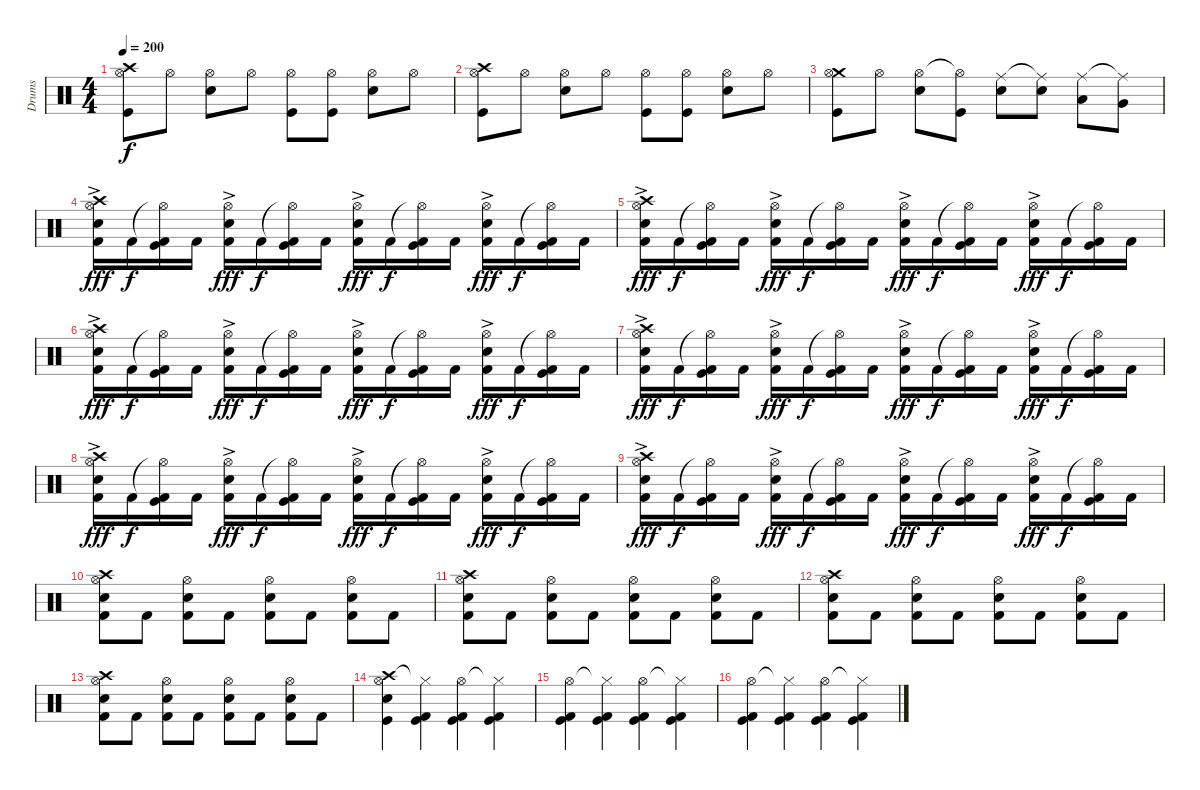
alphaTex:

\track ("Drums" "Drums") {instrument percussion}
\staff {score}
\articulation defaults
\ts (4 4)
\tempo 200
\clef neutral
\ks c
("Crash high (hit)" "Hi-Hat (open)" "Kick (hit)").8{dy f} "Hi-Hat (open)".8 ("Hi-Hat (open)" "Snare (hit) 2").8 "Hi-Hat (open)".8 ("Hi-Hat (open)" "Kick (hit)").8 ("Hi-Hat (open)" "Kick (hit)").8 ("Hi-Hat (open)" "Snare (hit) 2").8 "Hi-Hat (open)".8 |
("Crash high (hit)" "Hi-Hat (open)" "Kick (hit)").8 "Hi-Hat (open)".8 ("Hi-Hat (open)" "Snare (hit) 2").8 "Hi-Hat (open)".8 ("Hi-Hat (open)" "Kick (hit)").8 ("Hi-Hat (open)" "Kick (hit)").8 ("Hi-Hat (open)" "Snare (hit) 2").8 "Hi-Hat (open)".8 |
("Crash medium (hit)" "Hi-Hat (open)" "Kick (hit)").8 "Hi-Hat (open)".8 ("Hi-Hat (open)" "Snare (hit) 2").8 ("Hi-Hat (open)"{t} "Kick (hit)").8 ("Ride (middle)" "Snare (hit) 2").8 ("Ride (middle)"{t} "Snare (hit) 2").8 ("Ride (middle)" "Low Tom (hit)").8 ("Ride (middle)"{t} "Very Low Tom (hit)").8 |
("Crash high (hit)"{ac} "Hi-Hat (open)"{ac} "Snare (hit) 2" "Kick (hit) 2").16{dy fff} "Kick (hit) 2".16{dy f} ("Hi-Hat (open)"{t} "Kick (hit)" "Kick (hit) 2").16 "Kick (hit) 2".16 ("Hi-Hat (open)"{ac} "Snare (hit) 2" "Kick (hit) 2").16{dy fff} "Kick (hit) 2".16{dy f} ("Hi-Hat (open)"{t} "Kick (hit)" "Kick (hit) 2").16 "Kick (hit) 2".16 ("Hi-Hat (open)"{ac} "Snare (hit) 2" "Kick (hit) 2").16{dy fff} "Kick (hit) 2".16{dy f} ("Hi-Hat (open)"{t} "Kick (hit)" "Kick (hit) 2").16 "Kick (hit) 2".16 ("Hi-Hat (open)"{ac} "Snare (hit) 2" "Kick (hit) 2").16{dy fff} "Kick (hit) 2".16{dy f} ("Hi-Hat (open)"{t} "Kick (hit)" "Kick (hit) 2").16 "Kick (hit) 2".16 |
("Crash high (hit)"{ac} "Hi-Hat (open)"{ac} "Snare (hit) 2" "Kick (hit) 2").16{dy fff} "Kick (hit) 2".16{dy f} ("Hi-Hat (open)"{t} "Kick (hit)" "Kick (hit) 2").16 "Kick (hit) 2".16 ("Hi-Hat (open)"{ac} "Snare (hit) 2" "Kick (hit) 2").16{dy fff} "Kick (hit) 2".16{dy f} ("Hi-Hat (open)"{t} "Kick (hit)" "Kick (hit) 2").16 "Kick (hit) 2".16 ("Hi-Hat (open)"{ac} "Snare (hit) 2" "Kick (hit) 2").16{dy fff} "Kick (hit) 2".16{dy f} ("Hi-Hat (open)"{t} "Kick (hit)" "Kick (hit) 2").16 "Kick (hit) 2".16 ("Hi-Hat (open)"{ac} "Snare (hit) 2" "Kick (hit) 2").16{dy fff} "Kick (hit) 2".16{dy f} ("Hi-Hat (open)"{t} "Kick (hit)" "Kick (hit) 2").16 "Kick (hit) 2".16 |
("Crash high (hit)"{ac} "Hi-Hat (open)"{ac} "Snare (hit) 2" "Kick (hit) 2").16{dy fff} "Kick (hit) 2".16{dy f} ("Hi-Hat (open)"{t} "Kick (hit)" "Kick (hit) 2").16 "Kick (hit) 2".16 ("Hi-Hat (open)"{ac} "Snare (hit) 2" "Kick (hit) 2").16{dy fff} "Kick (hit) 2".16{dy f} ("Hi-Hat (open)"{t} "Kick (hit)" "Kick (hit) 2").16 "Kick (hit) 2".16 ("Hi-Hat (open)"{ac} "Snare (hit) 2" "Kick (hit) 2").16{dy fff} "Kick (hit) 2".16{dy f} ("Hi-Hat (open)"{t} "Kick (hit)" "Kick (hit) 2").16 "Kick (hit) 2".16 ("Hi-Hat (open)"{ac} "Snare (hit) 2" "Kick (hit) 2").16{dy fff} "Kick (hit) 2".16{dy f} ("Hi-Hat (open)"{t} "Kick (hit)" "Kick (hit) 2").16 "Kick (hit) 2".16 |
("Crash high (hit)"{ac} "Hi-Hat (open)"{ac} "Snare (hit) 2" "Kick (hit) 2").16{dy fff} "Kick (hit) 2".16{dy f} ("Hi-Hat (open)"{t} "Kick (hit)" "Kick (hit) 2").16 "Kick (hit) 2".16 ("Hi-Hat (open)"{ac} "Snare (hit) 2" "Kick (hit) 2").16{dy fff} "Kick (hit) 2".16{dy f} ("Hi-Hat (open)"{t} "Kick (hit)" "Kick (hit) 2").16 "Kick (hit) 2".16 ("Hi-Hat (open)"{ac} "Snare (hit) 2" "Kick (hit) 2").16{dy fff} "Kick (hit) 2".16{dy f} ("Hi-Hat (open)"{t} "Kick (hit)" "Kick (hit) 2").16 "Kick (hit) 2".16 ("Hi-Hat (open)"{ac} "Snare (hit) 2" "Kick (hit) 2").16{dy fff} "Kick (hit) 2".16{dy f} ("Hi-Hat (open)"{t} "Kick (hit)" "Kick (hit) 2").16 "Kick (hit) 2".16 |
("Crash high (hit)"{ac} "Hi-Hat (open)"{ac} "Snare (hit) 2" "Kick (hit) 2").16{dy fff} "Kick (hit) 2".16{dy f} ("Hi-Hat (open)"{t} "Kick (hit)" "Kick (hit) 2").16 "Kick (hit) 2".16 ("Hi-Hat (open)"{ac} "Snare (hit) 2" "Kick (hit) 2").16{dy fff} "Kick (hit) 2".16{dy f} ("Hi-Hat (open)"{t} "Kick (hit)" "Kick (hit) 2").16 "Kick (hit) 2".16 ("Hi-Hat (open)"{ac} "Snare (hit) 2" "Kick (hit) 2").16{dy fff} "Kick (hit) 2".16{dy f} ("Hi-Hat (open)"{t} "Kick (hit)" "Kick (hit) 2").16 "Kick (hit) 2".16 ("Hi-Hat (open)"{ac} "Snare (hit) 2" "Kick (hit) 2").16{dy fff} "Kick (hit) 2".16{dy f} ("Hi-Hat (open)"{t} "Kick (hit)" "Kick (hit) 2").16 "Kick (hit) 2".16 |
("Crash high (hit)"{ac} "Hi-Hat (open)"{ac} "Snare (hit) 2" "Kick (hit) 2").16{dy fff} "Kick (hit) 2".16{dy f} ("Hi-Hat (open)"{t} "Kick (hit)" "Kick (hit) 2").16 "Kick (hit) 2".16 ("Hi-Hat (open)"{ac} "Snare (hit) 2" "Kick (hit) 2").16{dy fff} "Kick (hit) 2".16{dy f} ("Hi-Hat (open)"{t} "Kick (hit)" "Kick (hit) 2").16 "Kick (hit) 2".16 ("Hi-Hat (open)"{ac} "Snare (hit) 2" "Kick (hit) 2").16{dy fff} "Kick (hit) 2".16{dy f} ("Hi-Hat (open)"{t} "Kick (hit)" "Kick (hit) 2").16 "Kick (hit) 2".16 ("Hi-Hat (open)"{ac} "Snare (hit) 2" "Kick (hit) 2").16{dy fff} "Kick (hit) 2".16{dy f} ("Hi-Hat (open)"{t} "Kick (hit)" "Kick (hit) 2").16 "Kick (hit) 2".16 |
("Crash high (hit)" "Hi-Hat (open)" "Snare (hit) 2" "Kick (hit) 2").8 "Kick (hit) 2".8 ("Hi-Hat (open)" "Snare (hit) 2" "Kick (hit) 2").8 "Kick (hit) 2".8 ("Hi-Hat (open)" "Snare (hit) 2" "Kick (hit) 2").8 "Kick (hit) 2".8 ("Hi-Hat (open)" "Snare (hit) 2" "Kick (hit) 2").8 "Kick (hit) 2".8 |
("Crash high (hit)" "Hi-Hat (open)" "Snare (hit) 2" "Kick (hit) 2").8 "Kick (hit) 2".8 ("Hi-Hat (open)" "Snare (hit) 2" "Kick (hit) 2").8 "Kick (hit) 2".8 ("Hi-Hat (open)" "Snare (hit) 2" "Kick (hit) 2").8 "Kick (hit) 2".8 ("Hi-Hat (open)" "Snare (hit) 2" "Kick (hit) 2").8 "Kick (hit) 2".8 |
("Crash high (hit)" "Hi-Hat (open)" "Snare (hit) 2" "Kick (hit) 2").8 "Kick (hit) 2".8 ("Hi-Hat (open)" "Snare (hit) 2" "Kick (hit) 2").8 "Kick (hit) 2".8 ("Hi-Hat (open)" "Snare (hit) 2" "Kick (hit) 2").8 "Kick (hit) 2".8 ("Hi-Hat (open)" "Snare (hit) 2" "Kick (hit) 2").8 "Kick (hit) 2".8 |
("Crash high (hit)" "Hi-Hat (open)" "Snare (hit) 2" "Kick (hit) 2").8 "Kick (hit) 2".8 ("Hi-Hat (open)" "Snare (hit) 2" "Kick (hit) 2").8 "Kick (hit) 2".8 ("Hi-Hat (open)" "Snare (hit) 2" "Kick (hit) 2").8 "Kick (hit) 2".8 ("Hi-Hat (open)" "Snare (hit) 2" "Kick (hit) 2").8 "Kick (hit) 2".8 |
("Crash high (hit)" "Hi-Hat (open)" "Snare (hit) 2" "Kick (hit)").4 ("Hi-Hat (closed)"{t} "Kick (hit) 2" "Kick (hit)").4 ("Hi-Hat (open)" "Kick (hit) 2" "Kick (hit)").4 ("Hi-Hat (closed)"{t} "Kick (hit) 2" "Kick (hit)").4 |
("Hi-Hat (open)" "Kick (hit) 2" "Kick (hit)").4 ("Hi-Hat (closed)"{t} "Kick (hit) 2" "Kick (hit)").4 ("Hi-Hat (open)" "Kick (hit) 2" "Kick (hit)").4 ("Hi-Hat (closed)"{t} "Kick (hit) 2" "Kick (hit)").4 |
("Hi-Hat (open)" "Kick (hit) 2" "Kick (hit)").4 ("Hi-Hat (closed)"{t} "Kick (hit) 2" "Kick (hit)").4 ("Hi-Hat (open)" "Kick (hit) 2" "Kick (hit)").4 ("Hi-Hat (closed)"{t} "Kick (hit) 2" "Kick (hit)").4
